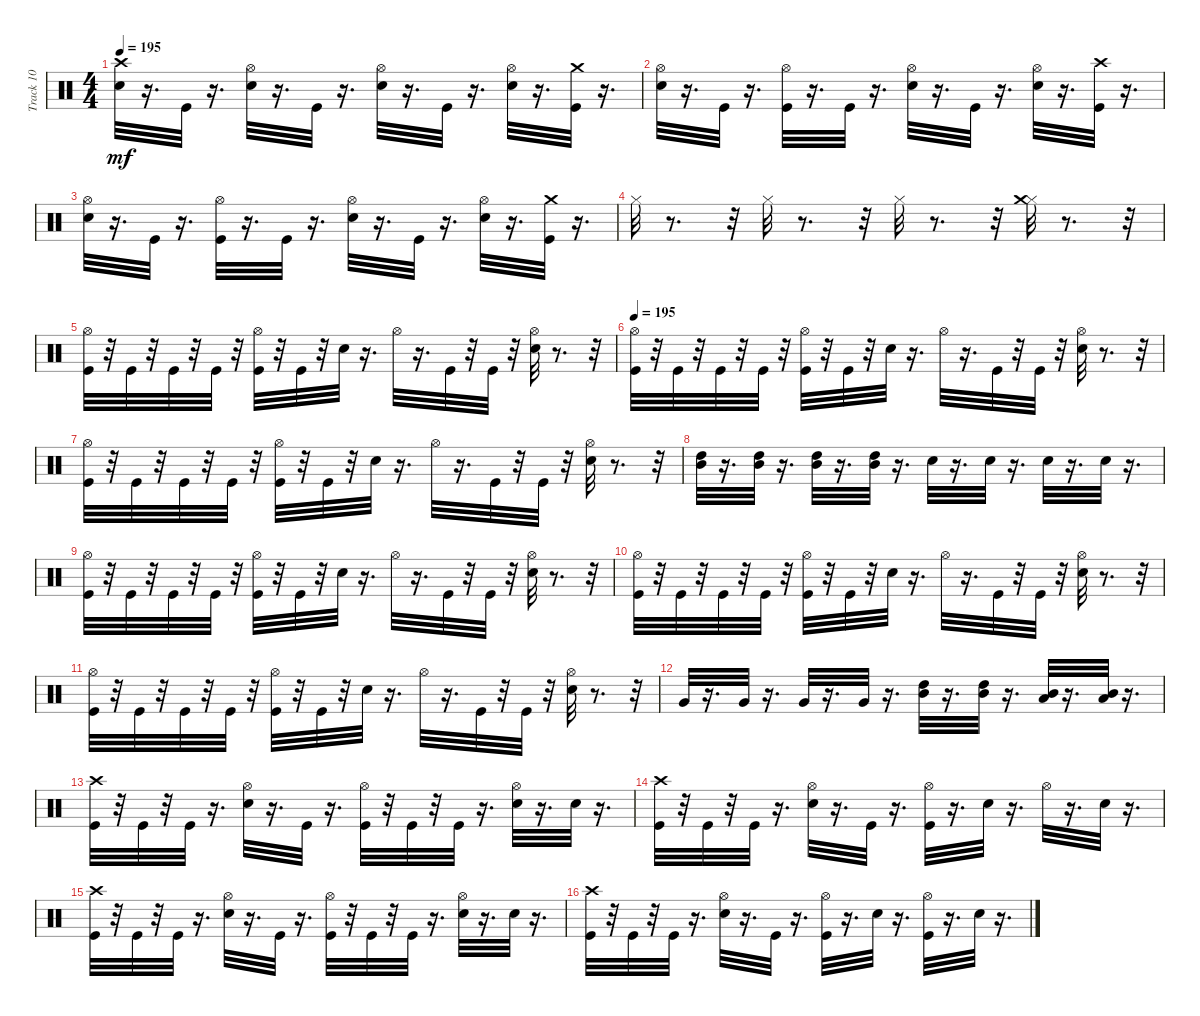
\track ("Track 10" "Track 10") {instrument percussion}
\staff {score}
\articulation defaults
\ts (4 4)
\tempo 195
\clef neutral
\ks c
("Crash high (hit)" "Electric Snare (hit)").32{dy mf} r.16{d} "Kick (hit)".32 r.16{d} ("Electric Snare (hit)" "Hi-Hat (open)").32 r.16{d} "Kick (hit)".32 r.16{d} ("Electric Snare (hit)" "Hi-Hat (open)").32 r.16{d} "Kick (hit)".32 r.16{d} ("Hi-Hat (open)" "Electric Snare (hit)").32 r.16{d} ("Kick (hit)" "Crash medium (hit)").32 r.16{d} |
("Hi-Hat (open)" "Electric Snare (hit)").32 r.16{d} "Kick (hit)".32 r.16{d} ("Hi-Hat (open)" "Kick (hit)").32 r.16{d} "Kick (hit)".32 r.16{d} ("Hi-Hat (open)" "Electric Snare (hit)").32 r.16{d} "Kick (hit)".32 r.16{d} ("Electric Snare (hit)" "Hi-Hat (open)").32 r.16{d} ("Crash high (hit)" "Kick (hit)").32 r.16{d} |
("Electric Snare (hit)" "Hi-Hat (open)").32 r.16{d} "Kick (hit)".32 r.16{d} ("Kick (hit)" "Hi-Hat (open)").32 r.16{d} "Kick (hit)".32 r.16{d} ("Electric Snare (hit)" "Hi-Hat (open)").32 r.16{d} "Kick (hit)".32 r.16{d} ("Electric Snare (hit)" "Hi-Hat (open)").32 r.16{d} ("Kick (hit)" "Crash medium (hit)").32 r.16{d} |
"Hi-Hat (closed)".32 r.8{d} r.32 "Hi-Hat (closed)".32 r.8{d} r.32 "Hi-Hat (closed)".32 r.8{d} r.32 ("Hi-Hat (closed)" "Crash medium (hit)").32 r.8{d} r.32 |
("Kick (hit)" "Hi-Hat (open)").32 r.32 "Kick (hit)".32 r.32 "Kick (hit)".32 r.32 "Kick (hit)".32 r.32 ("Kick (hit)" "Hi-Hat (open)").32 r.32 "Kick (hit)".32 r.32 "Electric Snare (hit)".32 r.16{d} "Hi-Hat (open)".32 r.16{d} "Kick (hit)".32 r.32 "Kick (hit)".32 r.32 ("Hi-Hat (open)" "Electric Snare (hit)").32 r.8{d} r.32 |
\tempo 195
("Kick (hit)" "Hi-Hat (open)").32 r.32 "Kick (hit)".32 r.32 "Kick (hit)".32 r.32 "Kick (hit)".32 r.32 ("Kick (hit)" "Hi-Hat (open)").32 r.32 "Kick (hit)".32 r.32 "Electric Snare (hit)".32 r.16{d} "Hi-Hat (open)".32 r.16{d} "Kick (hit)".32 r.32 "Kick (hit)".32 r.32 ("Electric Snare (hit)" "Hi-Hat (open)").32 r.8{d} r.32 |
("Kick (hit)" "Hi-Hat (open)").32 r.32 "Kick (hit)".32 r.32 "Kick (hit)".32 r.32 "Kick (hit)".32 r.32 ("Kick (hit)" "Hi-Hat (open)").32 r.32 "Kick (hit)".32 r.32 "Electric Snare (hit)".32 r.16{d} "Hi-Hat (open)".32 r.16{d} "Kick (hit)".32 r.32 "Kick (hit)".32 r.32 ("Electric Snare (hit)" "Hi-Hat (open)").32 r.8{d} r.32 |
("Mid Tom (hit)" "High Tom (hit)").32 r.16{d} ("Mid Tom (hit)" "High Tom (hit)").32 r.16{d} ("High Tom (hit)" "Mid Tom (hit)").32 r.16{d} ("High Tom (hit)" "Mid Tom (hit)").32 r.16{d} "Electric Snare (hit)".32 r.16{d} "Electric Snare (hit)".32 r.16{d} "Electric Snare (hit)".32 r.16{d} "Electric Snare (hit)".32 r.16{d} |
("Kick (hit)" "Hi-Hat (open)").32 r.32 "Kick (hit)".32 r.32 "Kick (hit)".32 r.32 "Kick (hit)".32 r.32 ("Kick (hit)" "Hi-Hat (open)").32 r.32 "Kick (hit)".32 r.32 "Electric Snare (hit)".32 r.16{d} "Hi-Hat (open)".32 r.16{d} "Kick (hit)".32 r.32 "Kick (hit)".32 r.32 ("Hi-Hat (open)" "Electric Snare (hit)").32 r.8{d} r.32 |
("Kick (hit)" "Hi-Hat (open)").32 r.32 "Kick (hit)".32 r.32 "Kick (hit)".32 r.32 "Kick (hit)".32 r.32 ("Kick (hit)" "Hi-Hat (open)").32 r.32 "Kick (hit)".32 r.32 "Electric Snare (hit)".32 r.16{d} "Hi-Hat (open)".32 r.16{d} "Kick (hit)".32 r.32 "Kick (hit)".32 r.32 ("Electric Snare (hit)" "Hi-Hat (open)").32 r.8{d} r.32 |
("Kick (hit)" "Hi-Hat (open)").32 r.32 "Kick (hit)".32 r.32 "Kick (hit)".32 r.32 "Kick (hit)".32 r.32 ("Kick (hit)" "Hi-Hat (open)").32 r.32 "Kick (hit)".32 r.32 "Electric Snare (hit)".32 r.16{d} "Hi-Hat (open)".32 r.16{d} "Kick (hit)".32 r.32 "Kick (hit)".32 r.32 ("Electric Snare (hit)" "Hi-Hat (open)").32 r.8{d} r.32 |
"Very Low Tom (hit)".32 r.16{d} "Very Low Tom (hit)".32 r.16{d} "Very Low Tom (hit)".32 r.16{d} "Very Low Tom (hit)".32 r.16{d} ("Mid Tom (hit)" "High Tom (hit)").32 r.16{d} ("Mid Tom (hit)" "High Tom (hit)").32 r.16{d} ("Low Tom (hit)" "Mid Tom (hit)").32 r.16{d} ("Low Tom (hit)" "Mid Tom (hit)").32 r.16{d} |
("Kick (hit)" "Crash high (hit)").32 r.32 "Kick (hit)".32 r.32 "Kick (hit)".32 r.16{d} ("Hi-Hat (open)" "Electric Snare (hit)").32 r.16{d} "Kick (hit)".32 r.16{d} ("Kick (hit)" "Hi-Hat (open)").32 r.32 "Kick (hit)".32 r.32 "Kick (hit)".32 r.16{d} ("Hi-Hat (open)" "Electric Snare (hit)").32 r.16{d} "Electric Snare (hit)".32 r.16{d} |
("Crash high (hit)" "Kick (hit)").32 r.32 "Kick (hit)".32 r.32 "Kick (hit)".32 r.16{d} ("Electric Snare (hit)" "Hi-Hat (open)").32 r.16{d} "Kick (hit)".32 r.16{d} ("Kick (hit)" "Hi-Hat (open)").32 r.16{d} "Electric Snare (hit)".32 r.16{d} "Hi-Hat (open)".32 r.16{d} "Electric Snare (hit)".32 r.16{d} |
("Crash high (hit)" "Kick (hit)").32 r.32 "Kick (hit)".32 r.32 "Kick (hit)".32 r.16{d} ("Electric Snare (hit)" "Hi-Hat (open)").32 r.16{d} "Kick (hit)".32 r.16{d} ("Kick (hit)" "Hi-Hat (open)").32 r.32 "Kick (hit)".32 r.32 "Kick (hit)".32 r.16{d} ("Electric Snare (hit)" "Hi-Hat (open)").32 r.16{d} "Electric Snare (hit)".32 r.16{d} |
("Crash high (hit)" "Kick (hit)").32 r.32 "Kick (hit)".32 r.32 "Kick (hit)".32 r.16{d} ("Electric Snare (hit)" "Hi-Hat (open)").32 r.16{d} "Kick (hit)".32 r.16{d} ("Kick (hit)" "Hi-Hat (open)").32 r.16{d} "Electric Snare (hit)".32 r.16{d} ("Kick (hit)" "Hi-Hat (open)").32 r.16{d} "Electric Snare (hit)".32 r.16{d}
